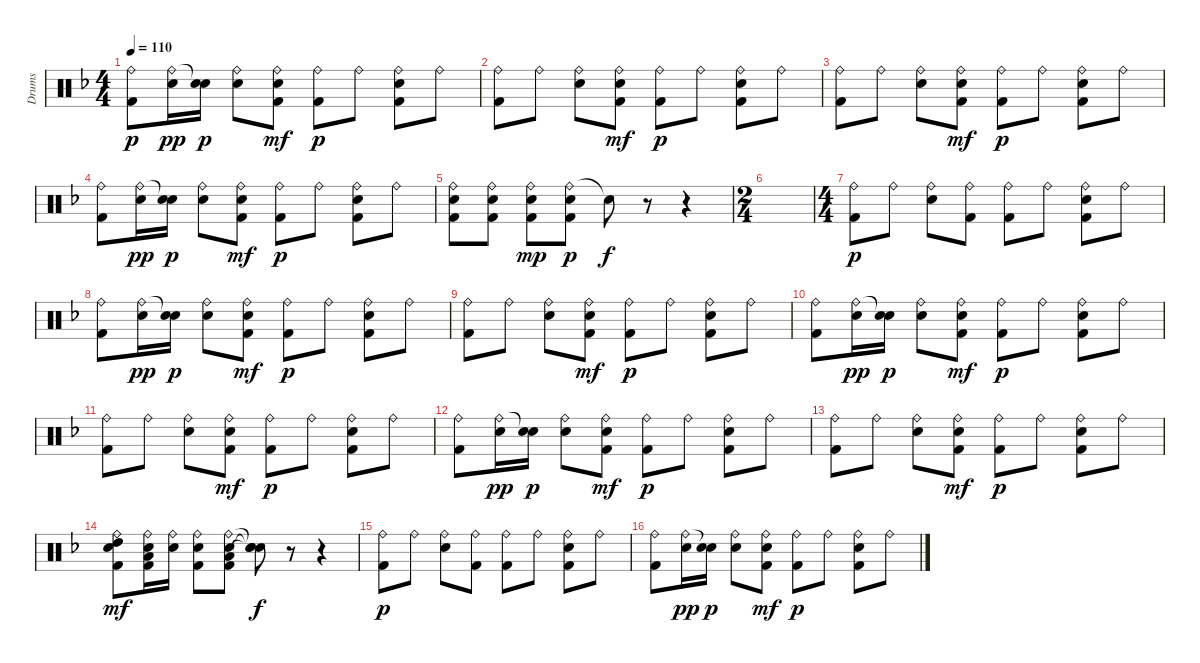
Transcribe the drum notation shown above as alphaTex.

\track ("Drums" "Drums") {instrument percussion}
\staff {score}
\articulation defaults
\ts (4 4)
\tempo 110
\clef neutral
\ks f
("Ride (bell)" "Kick (hit) 2").8{dy p} ("Ride (bell)" "Electric Snare (hit)").16{dy pp} ("Snare (hit)"{t} "Electric Snare (hit)").16{dy p} ("Ride (bell)" "Electric Snare (hit)").8 ("Ride (bell)" "Electric Snare (hit)" "Kick (hit) 2").8{dy mf} ("Ride (bell)" "Kick (hit) 2").8{dy p} "Ride (bell)".8 ("Ride (bell)" "Electric Snare (hit)" "Kick (hit) 2").8 "Ride (bell)".8 |
("Ride (bell)" "Kick (hit) 2").8 "Ride (bell)".8 ("Ride (bell)" "Electric Snare (hit)").8 ("Ride (bell)" "Electric Snare (hit)" "Kick (hit) 2").8{dy mf} ("Ride (bell)" "Kick (hit) 2").8{dy p} "Ride (bell)".8 ("Ride (bell)" "Electric Snare (hit)" "Kick (hit) 2").8 "Ride (bell)".8 |
("Ride (bell)" "Kick (hit) 2").8 "Ride (bell)".8 ("Ride (bell)" "Electric Snare (hit)").8 ("Ride (bell)" "Electric Snare (hit)" "Kick (hit) 2").8{dy mf} ("Ride (bell)" "Kick (hit) 2").8{dy p} "Ride (bell)".8 ("Ride (bell)" "Electric Snare (hit)" "Kick (hit) 2").8 "Ride (bell)".8 |
("Ride (bell)" "Kick (hit) 2").8 ("Ride (bell)" "Electric Snare (hit)").16{dy pp} ("Snare (hit)"{t} "Electric Snare (hit)").16{dy p} ("Ride (bell)" "Electric Snare (hit)").8 ("Ride (bell)" "Electric Snare (hit)" "Kick (hit) 2").8{dy mf} ("Ride (bell)" "Kick (hit) 2").8{dy p} "Ride (bell)".8 ("Ride (bell)" "Electric Snare (hit)" "Kick (hit) 2").8 "Ride (bell)".8 |
("Ride (bell)" "Electric Snare (hit)" "Kick (hit) 2").8 ("Ride (bell)" "Electric Snare (hit)" "Kick (hit) 2").8 ("Ride (bell)" "Electric Snare (hit)" "Kick (hit) 2").8{dy mp} ("Ride (bell)" "Electric Snare (hit)" "Kick (hit) 2").8{dy p} "Snare (hit)"{t}.8{dy f} r.8 r.4 |
\ts (2 4)
|
\ts (4 4)
("Ride (bell)" "Kick (hit) 2").8{dy p} "Ride (bell)".8 ("Ride (bell)" "Electric Snare (hit)").8 ("Ride (bell)" "Kick (hit) 2").8 ("Ride (bell)" "Kick (hit) 2").8 "Ride (bell)".8 ("Ride (bell)" "Electric Snare (hit)" "Kick (hit) 2").8 "Ride (bell)".8 |
("Ride (bell)" "Kick (hit) 2").8 ("Ride (bell)" "Electric Snare (hit)").16{dy pp} ("Snare (hit)"{t} "Electric Snare (hit)").16{dy p} ("Ride (bell)" "Electric Snare (hit)").8 ("Ride (bell)" "Electric Snare (hit)" "Kick (hit) 2").8{dy mf} ("Ride (bell)" "Kick (hit) 2").8{dy p} "Ride (bell)".8 ("Ride (bell)" "Electric Snare (hit)" "Kick (hit) 2").8 "Ride (bell)".8 |
("Ride (bell)" "Kick (hit) 2").8 "Ride (bell)".8 ("Ride (bell)" "Electric Snare (hit)").8 ("Ride (bell)" "Electric Snare (hit)" "Kick (hit) 2").8{dy mf} ("Ride (bell)" "Kick (hit) 2").8{dy p} "Ride (bell)".8 ("Ride (bell)" "Electric Snare (hit)" "Kick (hit) 2").8 "Ride (bell)".8 |
("Ride (bell)" "Kick (hit) 2").8 ("Ride (bell)" "Electric Snare (hit)").16{dy pp} ("Snare (hit)"{t} "Electric Snare (hit)").16{dy p} ("Ride (bell)" "Electric Snare (hit)").8 ("Ride (bell)" "Electric Snare (hit)" "Kick (hit) 2").8{dy mf} ("Ride (bell)" "Kick (hit) 2").8{dy p} "Ride (bell)".8 ("Ride (bell)" "Electric Snare (hit)" "Kick (hit) 2").8 "Ride (bell)".8 |
("Ride (bell)" "Kick (hit) 2").8 "Ride (bell)".8 ("Ride (bell)" "Electric Snare (hit)").8 ("Ride (bell)" "Electric Snare (hit)" "Kick (hit) 2").8{dy mf} ("Ride (bell)" "Kick (hit) 2").8{dy p} "Ride (bell)".8 ("Ride (bell)" "Electric Snare (hit)" "Kick (hit) 2").8 "Ride (bell)".8 |
("Ride (bell)" "Kick (hit) 2").8 ("Ride (bell)" "Electric Snare (hit)").16{dy pp} ("Snare (hit)"{t} "Electric Snare (hit)").16{dy p} ("Ride (bell)" "Electric Snare (hit)").8 ("Ride (bell)" "Electric Snare (hit)" "Kick (hit) 2").8{dy mf} ("Ride (bell)" "Kick (hit) 2").8{dy p} "Ride (bell)".8 ("Ride (bell)" "Electric Snare (hit)" "Kick (hit) 2").8 "Ride (bell)".8 |
("Ride (bell)" "Kick (hit) 2").8 "Ride (bell)".8 ("Ride (bell)" "Electric Snare (hit)").8 ("Ride (bell)" "Electric Snare (hit)" "Kick (hit) 2").8{dy mf} ("Ride (bell)" "Kick (hit) 2").8{dy p} "Ride (bell)".8 ("Ride (bell)" "Electric Snare (hit)" "Kick (hit) 2").8 "Ride (bell)".8 |
("Ride (bell)" "Electric Snare (hit)" "High Tom (hit)" "Kick (hit) 2").8{dy mf} ("Ride (bell)" "Electric Snare (hit)" "Low Tom (hit)" "Kick (hit) 2").16 ("Ride (bell)" "Electric Snare (hit)").16 ("Ride (bell)" "Electric Snare (hit)" "Kick (hit) 2").8 ("Ride (bell)" "Electric Snare (hit)" "Low Floor Tom (hit)" "Kick (hit) 2").8 ("Snare (hit)"{t} "Snare (hit)"{t} "Snare (hit)"{t}).8{dy f} r.8 r.4 |
("Ride (bell)" "Kick (hit) 2").8{dy p} "Ride (bell)".8 ("Ride (bell)" "Electric Snare (hit)").8 ("Ride (bell)" "Kick (hit) 2").8 ("Ride (bell)" "Kick (hit) 2").8 "Ride (bell)".8 ("Ride (bell)" "Electric Snare (hit)" "Kick (hit) 2").8 "Ride (bell)".8 |
("Ride (bell)" "Kick (hit) 2").8 ("Ride (bell)" "Electric Snare (hit)").16{dy pp} ("Snare (hit)"{t} "Electric Snare (hit)").16{dy p} ("Ride (bell)" "Electric Snare (hit)").8 ("Ride (bell)" "Electric Snare (hit)" "Kick (hit) 2").8{dy mf} ("Ride (bell)" "Kick (hit) 2").8{dy p} "Ride (bell)".8 ("Ride (bell)" "Electric Snare (hit)" "Kick (hit) 2").8 "Ride (bell)".8
